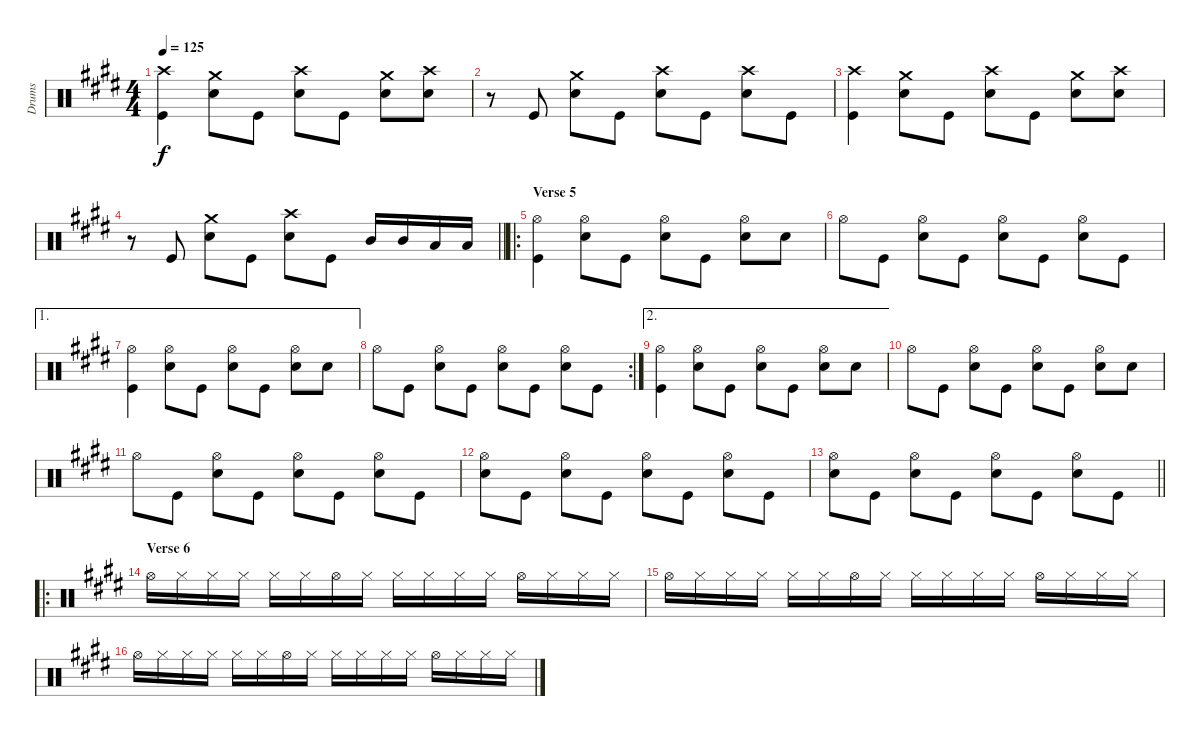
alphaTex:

\track ("Drums" "Drums") {instrument percussion}
\staff {score}
\articulation defaults
\ts (4 4)
\tempo 125
\clef neutral
\ks e
("Crash high (hit)" "Kick (hit)").4{dy f} ("Crash medium (hit)" "Snare (hit) 2").8 "Kick (hit)".8 ("Crash high (hit)" "Snare (hit) 2").8 "Kick (hit)".8 ("Crash medium (hit)" "Snare (hit) 2").8 ("Crash high (hit)" "Snare (hit) 2").8 |
r.8 "Kick (hit)".8 ("Crash medium (hit)" "Snare (hit) 2").8 "Kick (hit)".8 ("Crash high (hit)" "Snare (hit) 2").8 "Kick (hit)".8 ("Crash high (hit)" "Snare (hit) 2").8 "Kick (hit)".8 |
("Crash high (hit)" "Kick (hit)").4 ("Crash medium (hit)" "Snare (hit) 2").8 "Kick (hit)".8 ("Crash high (hit)" "Snare (hit) 2").8 "Kick (hit)".8 ("Crash medium (hit)" "Snare (hit) 2").8 ("Crash high (hit)" "Snare (hit) 2").8 |
\barLineRight lightlight
r.8 "Kick (hit)".8 ("Crash medium (hit)" "Snare (hit) 2").8 "Kick (hit)".8 ("Crash high (hit)" "Snare (hit) 2").8 "Kick (hit)".8 "Mid Tom (hit)".16 "Mid Tom (hit)".16 "Low Tom (hit)".16 "Low Tom (hit)".16 |
\ro
\section ("" "Verse 5")
("Hi-Hat (open)" "Kick (hit)").4 ("Hi-Hat (open)" "Snare (hit) 2").8 "Kick (hit)".8 ("Hi-Hat (open)" "Snare (hit) 2").8 "Kick (hit)".8 ("Hi-Hat (open)" "Snare (hit) 2").8 "Snare (hit) 2".8 |
"Hi-Hat (open)".8 "Kick (hit)".8 ("Hi-Hat (open)" "Snare (hit) 2").8 "Kick (hit)".8 ("Hi-Hat (open)" "Snare (hit) 2").8 "Kick (hit)".8 ("Hi-Hat (open)" "Snare (hit) 2").8 "Kick (hit)".8 |
\ae 1
("Hi-Hat (open)" "Kick (hit)").4 ("Hi-Hat (open)" "Snare (hit) 2").8 "Kick (hit)".8 ("Hi-Hat (open)" "Snare (hit) 2").8 "Kick (hit)".8 ("Hi-Hat (open)" "Snare (hit) 2").8 "Snare (hit) 2".8 |
\rc 2 "Hi-Hat (open)".8 "Kick (hit)".8
("Hi-Hat (open)" "Snare (hit) 2").8 "Kick (hit)".8 ("Hi-Hat (open)" "Snare (hit) 2").8 "Kick (hit)".8 ("Hi-Hat (open)" "Snare (hit) 2").8 "Kick (hit)".8 |
\ae 2
("Hi-Hat (open)" "Kick (hit)").4 ("Hi-Hat (open)" "Snare (hit) 2").8 "Kick (hit)".8 ("Hi-Hat (open)" "Snare (hit) 2").8 "Kick (hit)".8 ("Hi-Hat (open)" "Snare (hit) 2").8 "Snare (hit) 2".8 |
"Hi-Hat (open)".8 "Kick (hit)".8 ("Hi-Hat (open)" "Snare (hit) 2").8 "Kick (hit)".8 ("Hi-Hat (open)" "Snare (hit) 2").8 "Kick (hit)".8 ("Hi-Hat (open)" "Snare (hit) 2").8 "Snare (hit) 2".8 |
"Hi-Hat (open)".8 "Kick (hit)".8 ("Hi-Hat (open)" "Snare (hit) 2").8 "Kick (hit)".8 ("Hi-Hat (open)" "Snare (hit) 2").8 "Kick (hit)".8 ("Hi-Hat (open)" "Snare (hit) 2").8 "Kick (hit)".8 |
("Hi-Hat (open)" "Snare (hit) 2").8 "Kick (hit)".8 ("Hi-Hat (open)" "Snare (hit) 2").8 "Kick (hit)".8 ("Hi-Hat (open)" "Snare (hit) 2").8 "Kick (hit)".8 ("Hi-Hat (open)" "Snare (hit) 2").8 "Kick (hit)".8 |
\barLineRight lightlight
("Hi-Hat (open)" "Snare (hit) 2").8 "Kick (hit)".8 ("Hi-Hat (open)" "Snare (hit) 2").8 "Kick (hit)".8 ("Hi-Hat (open)" "Snare (hit) 2").8 "Kick (hit)".8 ("Hi-Hat (open)" "Snare (hit) 2").8 "Kick (hit)".8 |
\ro
\section ("" "Verse 6")
"Hi-Hat (open)".16 "Hi-Hat (closed)".16 "Hi-Hat (closed)".16 "Hi-Hat (closed)".16 "Hi-Hat (closed)".16 "Hi-Hat (closed)".16 "Hi-Hat (open)".16 "Hi-Hat (closed)".16 "Hi-Hat (closed)".16 "Hi-Hat (closed)".16 "Hi-Hat (closed)".16 "Hi-Hat (closed)".16 "Hi-Hat (open)".16 "Hi-Hat (closed)".16 "Hi-Hat (closed)".16 "Hi-Hat (closed)".16 |
"Hi-Hat (open)".16 "Hi-Hat (closed)".16 "Hi-Hat (closed)".16 "Hi-Hat (closed)".16 "Hi-Hat (closed)".16 "Hi-Hat (closed)".16 "Hi-Hat (open)".16 "Hi-Hat (closed)".16 "Hi-Hat (closed)".16 "Hi-Hat (closed)".16 "Hi-Hat (closed)".16 "Hi-Hat (closed)".16 "Hi-Hat (open)".16 "Hi-Hat (closed)".16 "Hi-Hat (closed)".16 "Hi-Hat (closed)".16 |
"Hi-Hat (open)".16 "Hi-Hat (closed)".16 "Hi-Hat (closed)".16 "Hi-Hat (closed)".16 "Hi-Hat (closed)".16 "Hi-Hat (closed)".16 "Hi-Hat (open)".16 "Hi-Hat (closed)".16 "Hi-Hat (closed)".16 "Hi-Hat (closed)".16 "Hi-Hat (closed)".16 "Hi-Hat (closed)".16 "Hi-Hat (open)".16 "Hi-Hat (closed)".16 "Hi-Hat (closed)".16 "Hi-Hat (closed)".16
